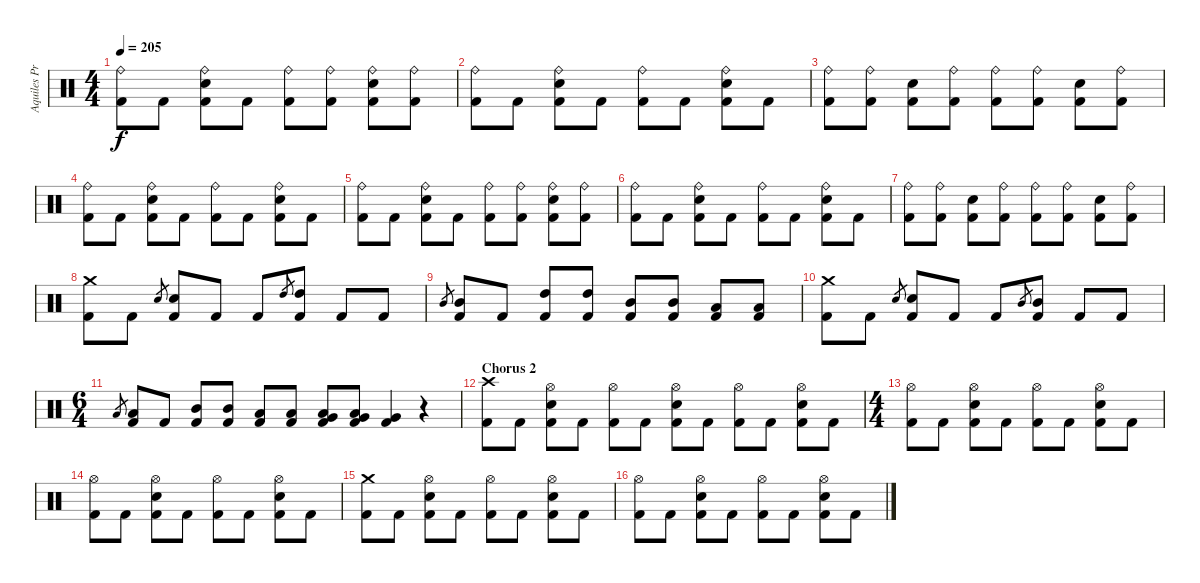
\track ("Aquiles Priester" "Aquiles Pr") {instrument percussion}
\staff {score}
\articulation defaults
\ts (4 4)
\tempo 205
\clef neutral
\ks c
("Ride (bell)" "Kick (hit) 2").8{dy f} "Kick (hit) 2".8 ("Ride (bell)" "Electric Snare (hit)" "Kick (hit) 2").8 "Kick (hit) 2".8 ("Ride (bell)" "Kick (hit) 2").8 ("Ride (bell)" "Kick (hit) 2").8 ("Ride (bell)" "Electric Snare (hit)" "Kick (hit) 2").8 ("Ride (bell)" "Kick (hit) 2").8 |
("Ride (bell)" "Kick (hit) 2").8 "Kick (hit) 2".8 ("Ride (bell)" "Electric Snare (hit)" "Kick (hit) 2").8 "Kick (hit) 2".8 ("Ride (bell)" "Kick (hit) 2").8 "Kick (hit) 2".8 ("Ride (bell)" "Electric Snare (hit)" "Kick (hit) 2").8 "Kick (hit) 2".8 |
("Ride (bell)" "Kick (hit) 2").8 ("Ride (bell)" "Kick (hit) 2").8 ("Electric Snare (hit)" "Kick (hit) 2").8 ("Ride (bell)" "Kick (hit) 2").8 ("Ride (bell)" "Kick (hit) 2").8 ("Ride (bell)" "Kick (hit) 2").8 ("Electric Snare (hit)" "Kick (hit) 2").8 ("Ride (bell)" "Kick (hit) 2").8 |
("Ride (bell)" "Kick (hit) 2").8 "Kick (hit) 2".8 ("Ride (bell)" "Electric Snare (hit)" "Kick (hit) 2").8 "Kick (hit) 2".8 ("Ride (bell)" "Kick (hit) 2").8 "Kick (hit) 2".8 ("Ride (bell)" "Electric Snare (hit)" "Kick (hit) 2").8 "Kick (hit) 2".8 |
("Ride (bell)" "Kick (hit) 2").8 "Kick (hit) 2".8 ("Ride (bell)" "Electric Snare (hit)" "Kick (hit) 2").8 "Kick (hit) 2".8 ("Ride (bell)" "Kick (hit) 2").8 ("Ride (bell)" "Kick (hit) 2").8 ("Ride (bell)" "Electric Snare (hit)" "Kick (hit) 2").8 ("Ride (bell)" "Kick (hit) 2").8 |
("Ride (bell)" "Kick (hit) 2").8 "Kick (hit) 2".8 ("Ride (bell)" "Electric Snare (hit)" "Kick (hit) 2").8 "Kick (hit) 2".8 ("Ride (bell)" "Kick (hit) 2").8 "Kick (hit) 2".8 ("Ride (bell)" "Electric Snare (hit)" "Kick (hit) 2").8 "Kick (hit) 2".8 |
("Ride (bell)" "Kick (hit) 2").8 ("Ride (bell)" "Kick (hit) 2").8 ("Electric Snare (hit)" "Kick (hit) 2").8 ("Ride (bell)" "Kick (hit) 2").8 ("Ride (bell)" "Kick (hit) 2").8 ("Ride (bell)" "Kick (hit) 2").8 ("Electric Snare (hit)" "Kick (hit) 2").8 ("Ride (bell)" "Kick (hit) 2").8 |
("Crash medium (hit)" "Kick (hit) 2").8 "Kick (hit) 2".8 "Electric Snare (hit)".8{gr} ("Electric Snare (hit)" "Kick (hit) 2").8 "Kick (hit) 2".8 "Kick (hit) 2".8 "High Tom (hit)".8{gr} ("High Tom (hit)" "Kick (hit) 2").8 "Kick (hit) 2".8 "Kick (hit) 2".8 |
"Mid Tom (hit)".8{gr} ("Mid Tom (hit)" "Kick (hit) 2").8 "Kick (hit) 2".8 ("High Tom (hit)" "Kick (hit) 2").8 ("High Tom (hit)" "Kick (hit) 2").8 ("Mid Tom (hit)" "Kick (hit) 2").8 ("Mid Tom (hit)" "Kick (hit) 2").8 ("Low Tom (hit)" "Kick (hit) 2").8 ("Low Tom (hit)" "Kick (hit) 2").8 |
("Crash medium (hit)" "Kick (hit) 2").8 "Kick (hit) 2".8 "Electric Snare (hit)".8{gr} ("Electric Snare (hit)" "Kick (hit) 2").8 "Kick (hit) 2".8 "Kick (hit) 2".8 "Mid Tom (hit)".8{gr} ("Mid Tom (hit)" "Kick (hit) 2").8 "Kick (hit) 2".8 "Kick (hit) 2".8 |
\ts (6 4)
"Low Tom (hit)".8{gr} ("Low Tom (hit)" "Kick (hit) 2").8 "Kick (hit) 2".8 ("Mid Tom (hit)" "Kick (hit) 2").8 ("Mid Tom (hit)" "Kick (hit) 2").8 ("Low Tom (hit)" "Kick (hit) 2").8 ("Low Tom (hit)" "Kick (hit) 2").8 ("Low Tom (hit)" "Very Low Tom (hit)" "Kick (hit) 2").8 ("Low Tom (hit)" "Very Low Tom (hit)" "Kick (hit) 2").8 ("Very Low Tom (hit)" "Kick (hit) 2").4 r.4 |
\section ("" "Chorus 2")
("Crash high (hit)" "Kick (hit) 2").8 "Kick (hit) 2".8 ("Hi-Hat (open)" "Electric Snare (hit)" "Kick (hit) 2").8 "Kick (hit) 2".8 ("Hi-Hat (open)" "Kick (hit) 2").8 "Kick (hit) 2".8 ("Hi-Hat (open)" "Electric Snare (hit)" "Kick (hit) 2").8 "Kick (hit) 2".8 ("Hi-Hat (open)" "Kick (hit) 2").8 "Kick (hit) 2".8 ("Hi-Hat (open)" "Electric Snare (hit)" "Kick (hit) 2").8 "Kick (hit) 2".8 |
\ts (4 4)
("Hi-Hat (open)" "Kick (hit) 2").8 "Kick (hit) 2".8 ("Hi-Hat (open)" "Electric Snare (hit)" "Kick (hit) 2").8 "Kick (hit) 2".8 ("Hi-Hat (open)" "Kick (hit) 2").8 "Kick (hit) 2".8 ("Hi-Hat (open)" "Electric Snare (hit)" "Kick (hit) 2").8 "Kick (hit) 2".8 |
("Hi-Hat (open)" "Kick (hit) 2").8 "Kick (hit) 2".8 ("Hi-Hat (open)" "Electric Snare (hit)" "Kick (hit) 2").8 "Kick (hit) 2".8 ("Hi-Hat (open)" "Kick (hit) 2").8 "Kick (hit) 2".8 ("Hi-Hat (open)" "Electric Snare (hit)" "Kick (hit) 2").8 "Kick (hit) 2".8 |
("Crash medium (hit)" "Kick (hit) 2").8 "Kick (hit) 2".8 ("Hi-Hat (open)" "Electric Snare (hit)" "Kick (hit) 2").8 "Kick (hit) 2".8 ("Hi-Hat (open)" "Kick (hit) 2").8 "Kick (hit) 2".8 ("Hi-Hat (open)" "Electric Snare (hit)" "Kick (hit) 2").8 "Kick (hit) 2".8 |
("Hi-Hat (open)" "Kick (hit) 2").8 "Kick (hit) 2".8 ("Hi-Hat (open)" "Electric Snare (hit)" "Kick (hit) 2").8 "Kick (hit) 2".8 ("Hi-Hat (open)" "Kick (hit) 2").8 "Kick (hit) 2".8 ("Hi-Hat (open)" "Electric Snare (hit)" "Kick (hit) 2").8 "Kick (hit) 2".8
